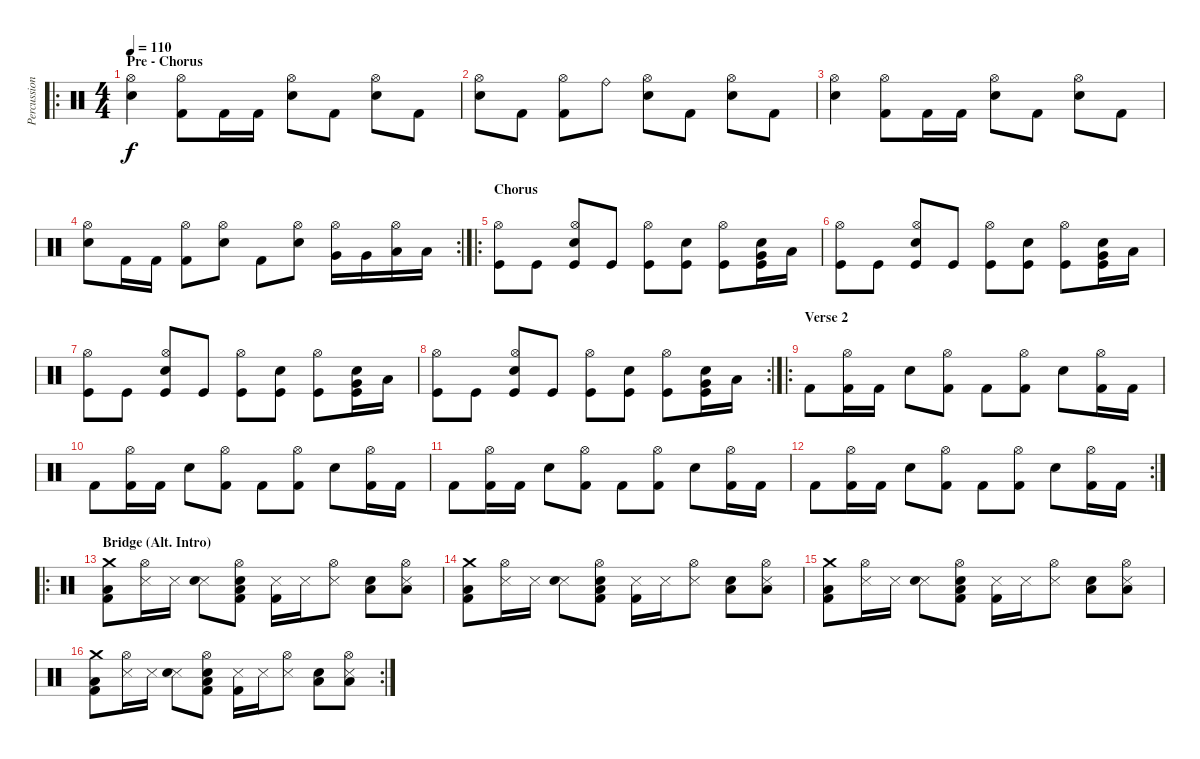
\track ("Percussion" "Percussion") {instrument percussion}
\staff {score}
\articulation defaults
\ro
\ts (4 4)
\section ("" "Pre - Chorus")
\tempo 110
\clef neutral
\ks c
("Electric Snare (hit)" "Hi-Hat (open)").4{dy f} ("Kick (hit) 2" "Hi-Hat (open)").8 "Kick (hit) 2".16 "Kick (hit) 2".16 ("Electric Snare (hit)" "Hi-Hat (open)").8 "Kick (hit) 2".8 ("Electric Snare (hit)" "Hi-Hat (open)").8 "Kick (hit) 2".8 |
("Electric Snare (hit)" "Hi-Hat (open)").8 "Kick (hit) 2".8 ("Kick (hit) 2" "Hi-Hat (open)").8 "Ride (bell)".8 ("Electric Snare (hit)" "Hi-Hat (open)").8 "Kick (hit) 2".8 ("Electric Snare (hit)" "Hi-Hat (open)").8 "Kick (hit) 2".8 |
("Electric Snare (hit)" "Hi-Hat (open)").4 ("Kick (hit) 2" "Hi-Hat (open)").8 "Kick (hit) 2".16 "Kick (hit) 2".16 ("Electric Snare (hit)" "Hi-Hat (open)").8 "Kick (hit) 2".8 ("Electric Snare (hit)" "Hi-Hat (open)").8 "Kick (hit) 2".8 |
\rc 2
("Electric Snare (hit)" "Hi-Hat (open)").8 "Kick (hit) 2".16 "Kick (hit) 2".16 ("Kick (hit) 2" "Hi-Hat (open)").8 ("Electric Snare (hit)" "Hi-Hat (open)").8 "Kick (hit) 2".8 ("Electric Snare (hit)" "Hi-Hat (open)").8 ("Very Low Tom (hit)" "Hi-Hat (open)").16 "Very Low Tom (hit)".16 ("Low Floor Tom (hit)" "Hi-Hat (open)").16 "Low Floor Tom (hit)".16 |
\ro
\section ("" "Chorus")
("Kick (hit)" "Hi-Hat (open)").8 "Kick (hit)".8 ("Kick (hit)" "Hi-Hat (open)" "Electric Snare (hit)").8 "Kick (hit)".8 ("Kick (hit)" "Hi-Hat (open)").8 ("Kick (hit)" "Electric Snare (hit)").8 ("Kick (hit)" "Hi-Hat (open)").8 ("Kick (hit)" "Very Low Tom (hit)" "Electric Snare (hit)").16 "Low Floor Tom (hit)".16 |
("Kick (hit)" "Hi-Hat (open)").8 "Kick (hit)".8 ("Kick (hit)" "Hi-Hat (open)" "Electric Snare (hit)").8 "Kick (hit)".8 ("Kick (hit)" "Hi-Hat (open)").8 ("Kick (hit)" "Electric Snare (hit)").8 ("Kick (hit)" "Hi-Hat (open)").8 ("Kick (hit)" "Very Low Tom (hit)" "Electric Snare (hit)").16 "Low Floor Tom (hit)".16 |
("Kick (hit)" "Hi-Hat (open)").8 "Kick (hit)".8 ("Kick (hit)" "Hi-Hat (open)" "Electric Snare (hit)").8 "Kick (hit)".8 ("Kick (hit)" "Hi-Hat (open)").8 ("Kick (hit)" "Electric Snare (hit)").8 ("Kick (hit)" "Hi-Hat (open)").8 ("Kick (hit)" "Very Low Tom (hit)" "Electric Snare (hit)").16 "Low Floor Tom (hit)".16 |
\rc 2
("Kick (hit)" "Hi-Hat (open)").8 "Kick (hit)".8 ("Kick (hit)" "Hi-Hat (open)" "Electric Snare (hit)").8 "Kick (hit)".8 ("Kick (hit)" "Hi-Hat (open)").8 ("Kick (hit)" "Electric Snare (hit)").8 ("Kick (hit)" "Hi-Hat (open)").8 ("Kick (hit)" "Very Low Tom (hit)" "Electric Snare (hit)").16 "Low Floor Tom (hit)".16 |
\ro
\section ("" "Verse 2")
"Kick (hit) 2".8 ("Hi-Hat (open)" "Kick (hit) 2").16 "Kick (hit) 2".16 "Electric Snare (hit)".8 ("Hi-Hat (open)" "Kick (hit) 2").8 "Kick (hit) 2".8 ("Hi-Hat (open)" "Kick (hit) 2").8 "Electric Snare (hit)".8 ("Hi-Hat (open)" "Kick (hit) 2").16 "Kick (hit) 2".16 |
"Kick (hit) 2".8 ("Hi-Hat (open)" "Kick (hit) 2").16 "Kick (hit) 2".16 "Electric Snare (hit)".8 ("Hi-Hat (open)" "Kick (hit) 2").8 "Kick (hit) 2".8 ("Hi-Hat (open)" "Kick (hit) 2").8 "Electric Snare (hit)".8 ("Hi-Hat (open)" "Kick (hit) 2").16 "Kick (hit) 2".16 |
"Kick (hit) 2".8 ("Hi-Hat (open)" "Kick (hit) 2").16 "Kick (hit) 2".16 "Electric Snare (hit)".8 ("Hi-Hat (open)" "Kick (hit) 2").8 "Kick (hit) 2".8 ("Hi-Hat (open)" "Kick (hit) 2").8 "Electric Snare (hit)".8 ("Hi-Hat (open)" "Kick (hit) 2").16 "Kick (hit) 2".16 |
\rc 2 "Kick (hit) 2".8
("Hi-Hat (open)" "Kick (hit) 2").16 "Kick (hit) 2".16 "Electric Snare (hit)".8 ("Hi-Hat (open)" "Kick (hit) 2").8 "Kick (hit) 2".8 ("Hi-Hat (open)" "Kick (hit) 2").8 "Electric Snare (hit)".8 ("Hi-Hat (open)" "Kick (hit) 2").16 "Kick (hit) 2".16 |
\ro
\section ("" "Bridge (Alt. Intro)")
("Low Floor Tom (hit)" "Crash medium (hit)" "Kick (hit) 2").8 ("Snare (side stick) 3" "Hi-Hat (open)").16 "Snare (side stick) 3".16 ("Snare (side stick) 3" "Electric Snare (hit)").8 ("Low Floor Tom (hit)" "Kick (hit) 2" "Electric Snare (hit)" "Hi-Hat (open)").8 ("Snare (side stick) 3" "Kick (hit) 2").16 "Snare (side stick) 3".16 ("Snare (side stick) 3" "Hi-Hat (open)").8 ("Low Floor Tom (hit)" "Electric Snare (hit)").8 ("Snare (side stick) 3" "Low Floor Tom (hit)" "Hi-Hat (open)").8 |
("Low Floor Tom (hit)" "Crash medium (hit)" "Kick (hit) 2").8 ("Snare (side stick) 3" "Hi-Hat (open)").16 "Snare (side stick) 3".16 ("Snare (side stick) 3" "Electric Snare (hit)").8 ("Low Floor Tom (hit)" "Kick (hit) 2" "Electric Snare (hit)" "Hi-Hat (open)").8 ("Snare (side stick) 3" "Kick (hit) 2").16 "Snare (side stick) 3".16 ("Snare (side stick) 3" "Hi-Hat (open)").8 ("Low Floor Tom (hit)" "Electric Snare (hit)").8 ("Snare (side stick) 3" "Low Floor Tom (hit)" "Hi-Hat (open)").8 |
("Low Floor Tom (hit)" "Crash medium (hit)" "Kick (hit) 2").8 ("Snare (side stick) 3" "Hi-Hat (open)").16 "Snare (side stick) 3".16 ("Snare (side stick) 3" "Electric Snare (hit)").8 ("Low Floor Tom (hit)" "Kick (hit) 2" "Electric Snare (hit)" "Hi-Hat (open)").8 ("Snare (side stick) 3" "Kick (hit) 2").16 "Snare (side stick) 3".16 ("Snare (side stick) 3" "Hi-Hat (open)").8 ("Low Floor Tom (hit)" "Electric Snare (hit)").8 ("Snare (side stick) 3" "Low Floor Tom (hit)" "Hi-Hat (open)").8 |
\rc 2
("Low Floor Tom (hit)" "Crash medium (hit)" "Kick (hit) 2").8 ("Snare (side stick) 3" "Hi-Hat (open)").16 "Snare (side stick) 3".16 ("Snare (side stick) 3" "Electric Snare (hit)").8 ("Low Floor Tom (hit)" "Kick (hit) 2" "Electric Snare (hit)" "Hi-Hat (open)").8 ("Snare (side stick) 3" "Kick (hit) 2").16 "Snare (side stick) 3".16 ("Snare (side stick) 3" "Hi-Hat (open)").8 ("Low Floor Tom (hit)" "Electric Snare (hit)").8 ("Snare (side stick) 3" "Low Floor Tom (hit)" "Hi-Hat (open)").8
